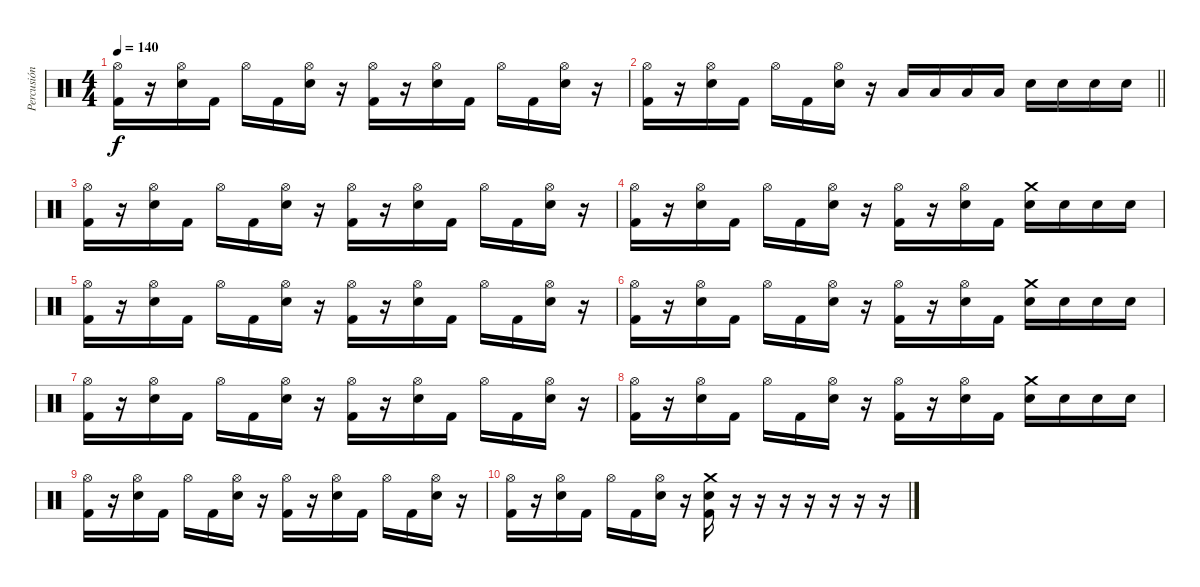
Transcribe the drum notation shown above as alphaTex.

\track ("Percusión" "Percusión") {instrument percussion}
\staff {score}
\articulation defaults
\ts (4 4)
\tempo 140
\clef neutral
\ks c
("Hi-Hat (open)" "Kick (hit) 2").16{dy f} r.16 ("Hi-Hat (open)" "Electric Snare (hit)").16 "Kick (hit) 2".16 "Hi-Hat (open)".16 "Kick (hit) 2".16 ("Hi-Hat (open)" "Electric Snare (hit)").16 r.16 ("Hi-Hat (open)" "Kick (hit) 2").16 r.16 ("Hi-Hat (open)" "Electric Snare (hit)").16 "Kick (hit) 2".16 "Hi-Hat (open)".16 "Kick (hit) 2".16 ("Hi-Hat (open)" "Electric Snare (hit)").16 r.16 |
\barLineRight lightlight
("Hi-Hat (open)" "Kick (hit) 2").16 r.16 ("Hi-Hat (open)" "Electric Snare (hit)").16 "Kick (hit) 2".16 "Hi-Hat (open)".16 "Kick (hit) 2".16 ("Hi-Hat (open)" "Electric Snare (hit)").16 r.16 "Low Tom (hit)".16 "Low Tom (hit)".16 "Low Tom (hit)".16 "Low Tom (hit)".16 "Electric Snare (hit)".16 "Electric Snare (hit)".16 "Electric Snare (hit)".16 "Electric Snare (hit)".16 |
("Hi-Hat (open)" "Kick (hit) 2").16 r.16 ("Hi-Hat (open)" "Electric Snare (hit)").16 "Kick (hit) 2".16 "Hi-Hat (open)".16 "Kick (hit) 2".16 ("Hi-Hat (open)" "Electric Snare (hit)").16 r.16 ("Hi-Hat (open)" "Kick (hit) 2").16 r.16 ("Hi-Hat (open)" "Electric Snare (hit)").16 "Kick (hit) 2".16 "Hi-Hat (open)".16 "Kick (hit) 2".16 ("Hi-Hat (open)" "Electric Snare (hit)").16 r.16 |
("Hi-Hat (open)" "Kick (hit) 2").16 r.16 ("Hi-Hat (open)" "Electric Snare (hit)").16 "Kick (hit) 2".16 "Hi-Hat (open)".16 "Kick (hit) 2".16 ("Hi-Hat (open)" "Electric Snare (hit)").16 r.16 ("Hi-Hat (open)" "Kick (hit) 2").16 r.16 ("Hi-Hat (open)" "Electric Snare (hit)").16 "Kick (hit) 2".16 ("Crash medium (hit)" "Electric Snare (hit)").16 "Electric Snare (hit)".16 "Electric Snare (hit)".16 "Electric Snare (hit)".16 |
("Hi-Hat (open)" "Kick (hit) 2").16 r.16 ("Hi-Hat (open)" "Electric Snare (hit)").16 "Kick (hit) 2".16 "Hi-Hat (open)".16 "Kick (hit) 2".16 ("Hi-Hat (open)" "Electric Snare (hit)").16 r.16 ("Hi-Hat (open)" "Kick (hit) 2").16 r.16 ("Hi-Hat (open)" "Electric Snare (hit)").16 "Kick (hit) 2".16 "Hi-Hat (open)".16 "Kick (hit) 2".16 ("Hi-Hat (open)" "Electric Snare (hit)").16 r.16 |
("Hi-Hat (open)" "Kick (hit) 2").16 r.16 ("Hi-Hat (open)" "Electric Snare (hit)").16 "Kick (hit) 2".16 "Hi-Hat (open)".16 "Kick (hit) 2".16 ("Hi-Hat (open)" "Electric Snare (hit)").16 r.16 ("Hi-Hat (open)" "Kick (hit) 2").16 r.16 ("Hi-Hat (open)" "Electric Snare (hit)").16 "Kick (hit) 2".16 ("Crash medium (hit)" "Electric Snare (hit)").16 "Electric Snare (hit)".16 "Electric Snare (hit)".16 "Electric Snare (hit)".16 |
("Hi-Hat (open)" "Kick (hit) 2").16 r.16 ("Hi-Hat (open)" "Electric Snare (hit)").16 "Kick (hit) 2".16 "Hi-Hat (open)".16 "Kick (hit) 2".16 ("Hi-Hat (open)" "Electric Snare (hit)").16 r.16 ("Hi-Hat (open)" "Kick (hit) 2").16 r.16 ("Hi-Hat (open)" "Electric Snare (hit)").16 "Kick (hit) 2".16 "Hi-Hat (open)".16 "Kick (hit) 2".16 ("Hi-Hat (open)" "Electric Snare (hit)").16 r.16 |
("Hi-Hat (open)" "Kick (hit) 2").16 r.16 ("Hi-Hat (open)" "Electric Snare (hit)").16 "Kick (hit) 2".16 "Hi-Hat (open)".16 "Kick (hit) 2".16 ("Hi-Hat (open)" "Electric Snare (hit)").16 r.16 ("Hi-Hat (open)" "Kick (hit) 2").16 r.16 ("Hi-Hat (open)" "Electric Snare (hit)").16 "Kick (hit) 2".16 ("Crash medium (hit)" "Electric Snare (hit)").16 "Electric Snare (hit)".16 "Electric Snare (hit)".16 "Electric Snare (hit)".16 |
("Hi-Hat (open)" "Kick (hit) 2").16 r.16 ("Hi-Hat (open)" "Electric Snare (hit)").16 "Kick (hit) 2".16 "Hi-Hat (open)".16 "Kick (hit) 2".16 ("Hi-Hat (open)" "Electric Snare (hit)").16 r.16 ("Hi-Hat (open)" "Kick (hit) 2").16 r.16 ("Hi-Hat (open)" "Electric Snare (hit)").16 "Kick (hit) 2".16 "Hi-Hat (open)".16 "Kick (hit) 2".16 ("Hi-Hat (open)" "Electric Snare (hit)").16 r.16 |
("Hi-Hat (open)" "Kick (hit) 2").16 r.16 ("Hi-Hat (open)" "Electric Snare (hit)").16 "Kick (hit) 2".16 "Hi-Hat (open)".16 "Kick (hit) 2".16 ("Hi-Hat (open)" "Electric Snare (hit)").16 r.16 ("Crash medium (hit)" "Kick (hit) 2" "Electric Snare (hit)").16 r.16 r.16 r.16 r.16 r.16 r.16 r.16
